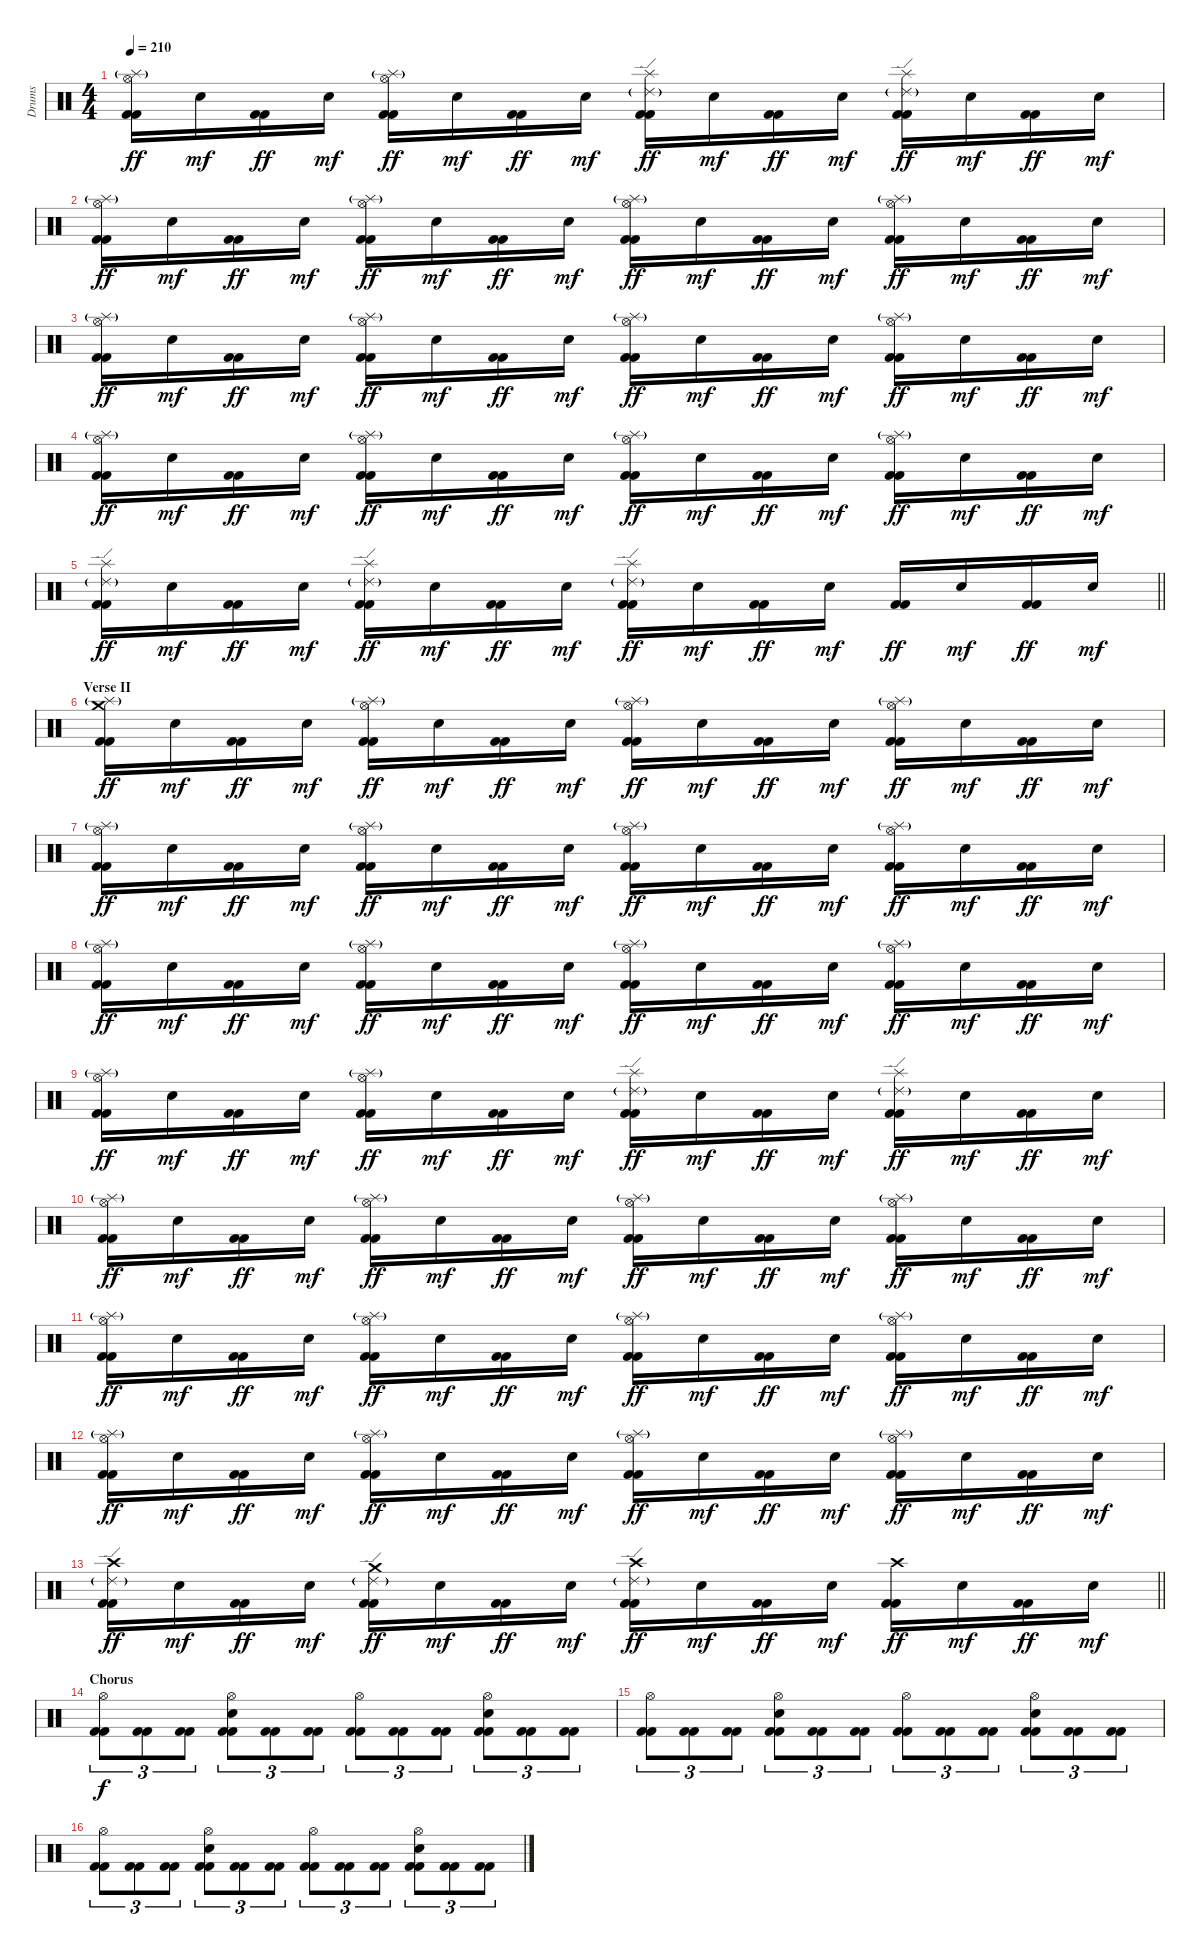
\track ("Drums" "Drums") {instrument percussion}
\staff {score}
\articulation defaults
\ts (4 4)
\tempo 210
\clef neutral
\ks c
("Hi-Hat (open)" "Splash (hit)"{g} "Kick (hit) 2" "Kick (hit) 2").16{dy ff} "Snare (hit) 2".16{dy mf} ("Kick (hit) 2" "Kick (hit) 2").16{dy ff} "Snare (hit) 2".16{dy mf} ("Hi-Hat (open)" "Splash (hit)"{g} "Kick (hit) 2" "Kick (hit) 2").16{dy ff} "Snare (hit) 2".16{dy mf} ("Kick (hit) 2" "Kick (hit) 2").16{dy ff} "Snare (hit) 2".16{dy mf} ("Splash (hit)" "Ride (edge) 2"{g} "Kick (hit) 2" "Kick (hit) 2").16{dy ff} "Snare (hit) 2".16{dy mf} ("Kick (hit) 2" "Kick (hit) 2").16{dy ff} "Snare (hit) 2".16{dy mf} ("Splash (hit)" "Ride (edge) 2"{g} "Kick (hit) 2" "Kick (hit) 2").16{dy ff} "Snare (hit) 2".16{dy mf} ("Kick (hit) 2" "Kick (hit) 2").16{dy ff} "Snare (hit) 2".16{dy mf} |
("Hi-Hat (open)" "Splash (hit)"{g} "Kick (hit) 2" "Kick (hit) 2").16{dy ff} "Snare (hit) 2".16{dy mf} ("Kick (hit) 2" "Kick (hit) 2").16{dy ff} "Snare (hit) 2".16{dy mf} ("Hi-Hat (open)" "Splash (hit)"{g} "Kick (hit) 2" "Kick (hit) 2").16{dy ff} "Snare (hit) 2".16{dy mf} ("Kick (hit) 2" "Kick (hit) 2").16{dy ff} "Snare (hit) 2".16{dy mf} ("Hi-Hat (open)" "Splash (hit)"{g} "Kick (hit) 2" "Kick (hit) 2").16{dy ff} "Snare (hit) 2".16{dy mf} ("Kick (hit) 2" "Kick (hit) 2").16{dy ff} "Snare (hit) 2".16{dy mf} ("Hi-Hat (open)" "Splash (hit)"{g} "Kick (hit) 2" "Kick (hit) 2").16{dy ff} "Snare (hit) 2".16{dy mf} ("Kick (hit) 2" "Kick (hit) 2").16{dy ff} "Snare (hit) 2".16{dy mf} |
("Hi-Hat (open)" "Splash (hit)"{g} "Kick (hit) 2" "Kick (hit) 2").16{dy ff} "Snare (hit) 2".16{dy mf} ("Kick (hit) 2" "Kick (hit) 2").16{dy ff} "Snare (hit) 2".16{dy mf} ("Hi-Hat (open)" "Splash (hit)"{g} "Kick (hit) 2" "Kick (hit) 2").16{dy ff} "Snare (hit) 2".16{dy mf} ("Kick (hit) 2" "Kick (hit) 2").16{dy ff} "Snare (hit) 2".16{dy mf} ("Hi-Hat (open)" "Splash (hit)"{g} "Kick (hit) 2" "Kick (hit) 2").16{dy ff} "Snare (hit) 2".16{dy mf} ("Kick (hit) 2" "Kick (hit) 2").16{dy ff} "Snare (hit) 2".16{dy mf} ("Hi-Hat (open)" "Splash (hit)"{g} "Kick (hit) 2" "Kick (hit) 2").16{dy ff} "Snare (hit) 2".16{dy mf} ("Kick (hit) 2" "Kick (hit) 2").16{dy ff} "Snare (hit) 2".16{dy mf} |
("Hi-Hat (open)" "Splash (hit)"{g} "Kick (hit) 2" "Kick (hit) 2").16{dy ff} "Snare (hit) 2".16{dy mf} ("Kick (hit) 2" "Kick (hit) 2").16{dy ff} "Snare (hit) 2".16{dy mf} ("Hi-Hat (open)" "Splash (hit)"{g} "Kick (hit) 2" "Kick (hit) 2").16{dy ff} "Snare (hit) 2".16{dy mf} ("Kick (hit) 2" "Kick (hit) 2").16{dy ff} "Snare (hit) 2".16{dy mf} ("Hi-Hat (open)" "Splash (hit)"{g} "Kick (hit) 2" "Kick (hit) 2").16{dy ff} "Snare (hit) 2".16{dy mf} ("Kick (hit) 2" "Kick (hit) 2").16{dy ff} "Snare (hit) 2".16{dy mf} ("Hi-Hat (open)" "Splash (hit)"{g} "Kick (hit) 2" "Kick (hit) 2").16{dy ff} "Snare (hit) 2".16{dy mf} ("Kick (hit) 2" "Kick (hit) 2").16{dy ff} "Snare (hit) 2".16{dy mf} |
\barLineRight lightlight
("Splash (hit)" "Ride (edge) 2"{g} "Kick (hit) 2" "Kick (hit) 2").16{dy ff} "Snare (hit) 2".16{dy mf} ("Kick (hit) 2" "Kick (hit) 2").16{dy ff} "Snare (hit) 2".16{dy mf} ("Splash (hit)" "Ride (edge) 2"{g} "Kick (hit) 2" "Kick (hit) 2").16{dy ff} "Snare (hit) 2".16{dy mf} ("Kick (hit) 2" "Kick (hit) 2").16{dy ff} "Snare (hit) 2".16{dy mf} ("Splash (hit)" "Ride (edge) 2"{g} "Kick (hit) 2" "Kick (hit) 2").16{dy ff} "Snare (hit) 2".16{dy mf} ("Kick (hit) 2" "Kick (hit) 2").16{dy ff} "Snare (hit) 2".16{dy mf} ("Kick (hit) 2" "Kick (hit) 2").16{dy ff} "Snare (hit) 2".16{dy mf} ("Kick (hit) 2" "Kick (hit) 2").16{dy ff} "Snare (hit) 2".16{dy mf} |
\section ("" "Verse II")
("Crash medium (hit)" "Splash (hit)"{g} "Kick (hit) 2" "Kick (hit) 2").16{dy ff} "Snare (hit) 2".16{dy mf} ("Kick (hit) 2" "Kick (hit) 2").16{dy ff} "Snare (hit) 2".16{dy mf} ("Hi-Hat (open)" "Splash (hit)"{g} "Kick (hit) 2" "Kick (hit) 2").16{dy ff} "Snare (hit) 2".16{dy mf} ("Kick (hit) 2" "Kick (hit) 2").16{dy ff} "Snare (hit) 2".16{dy mf} ("Hi-Hat (open)" "Splash (hit)"{g} "Kick (hit) 2" "Kick (hit) 2").16{dy ff} "Snare (hit) 2".16{dy mf} ("Kick (hit) 2" "Kick (hit) 2").16{dy ff} "Snare (hit) 2".16{dy mf} ("Hi-Hat (open)" "Splash (hit)"{g} "Kick (hit) 2" "Kick (hit) 2").16{dy ff} "Snare (hit) 2".16{dy mf} ("Kick (hit) 2" "Kick (hit) 2").16{dy ff} "Snare (hit) 2".16{dy mf} |
("Hi-Hat (open)" "Splash (hit)"{g} "Kick (hit) 2" "Kick (hit) 2").16{dy ff} "Snare (hit) 2".16{dy mf} ("Kick (hit) 2" "Kick (hit) 2").16{dy ff} "Snare (hit) 2".16{dy mf} ("Hi-Hat (open)" "Splash (hit)"{g} "Kick (hit) 2" "Kick (hit) 2").16{dy ff} "Snare (hit) 2".16{dy mf} ("Kick (hit) 2" "Kick (hit) 2").16{dy ff} "Snare (hit) 2".16{dy mf} ("Hi-Hat (open)" "Splash (hit)"{g} "Kick (hit) 2" "Kick (hit) 2").16{dy ff} "Snare (hit) 2".16{dy mf} ("Kick (hit) 2" "Kick (hit) 2").16{dy ff} "Snare (hit) 2".16{dy mf} ("Hi-Hat (open)" "Splash (hit)"{g} "Kick (hit) 2" "Kick (hit) 2").16{dy ff} "Snare (hit) 2".16{dy mf} ("Kick (hit) 2" "Kick (hit) 2").16{dy ff} "Snare (hit) 2".16{dy mf} |
("Hi-Hat (open)" "Splash (hit)"{g} "Kick (hit) 2" "Kick (hit) 2").16{dy ff} "Snare (hit) 2".16{dy mf} ("Kick (hit) 2" "Kick (hit) 2").16{dy ff} "Snare (hit) 2".16{dy mf} ("Hi-Hat (open)" "Splash (hit)"{g} "Kick (hit) 2" "Kick (hit) 2").16{dy ff} "Snare (hit) 2".16{dy mf} ("Kick (hit) 2" "Kick (hit) 2").16{dy ff} "Snare (hit) 2".16{dy mf} ("Hi-Hat (open)" "Splash (hit)"{g} "Kick (hit) 2" "Kick (hit) 2").16{dy ff} "Snare (hit) 2".16{dy mf} ("Kick (hit) 2" "Kick (hit) 2").16{dy ff} "Snare (hit) 2".16{dy mf} ("Hi-Hat (open)" "Splash (hit)"{g} "Kick (hit) 2" "Kick (hit) 2").16{dy ff} "Snare (hit) 2".16{dy mf} ("Kick (hit) 2" "Kick (hit) 2").16{dy ff} "Snare (hit) 2".16{dy mf} |
("Hi-Hat (open)" "Splash (hit)"{g} "Kick (hit) 2" "Kick (hit) 2").16{dy ff} "Snare (hit) 2".16{dy mf} ("Kick (hit) 2" "Kick (hit) 2").16{dy ff} "Snare (hit) 2".16{dy mf} ("Hi-Hat (open)" "Splash (hit)"{g} "Kick (hit) 2" "Kick (hit) 2").16{dy ff} "Snare (hit) 2".16{dy mf} ("Kick (hit) 2" "Kick (hit) 2").16{dy ff} "Snare (hit) 2".16{dy mf} ("Splash (hit)" "Ride (edge) 2"{g} "Kick (hit) 2" "Kick (hit) 2").16{dy ff} "Snare (hit) 2".16{dy mf} ("Kick (hit) 2" "Kick (hit) 2").16{dy ff} "Snare (hit) 2".16{dy mf} ("Splash (hit)" "Ride (edge) 2"{g} "Kick (hit) 2" "Kick (hit) 2").16{dy ff} "Snare (hit) 2".16{dy mf} ("Kick (hit) 2" "Kick (hit) 2").16{dy ff} "Snare (hit) 2".16{dy mf} |
("Hi-Hat (open)" "Splash (hit)"{g} "Kick (hit) 2" "Kick (hit) 2").16{dy ff} "Snare (hit) 2".16{dy mf} ("Kick (hit) 2" "Kick (hit) 2").16{dy ff} "Snare (hit) 2".16{dy mf} ("Hi-Hat (open)" "Splash (hit)"{g} "Kick (hit) 2" "Kick (hit) 2").16{dy ff} "Snare (hit) 2".16{dy mf} ("Kick (hit) 2" "Kick (hit) 2").16{dy ff} "Snare (hit) 2".16{dy mf} ("Hi-Hat (open)" "Splash (hit)"{g} "Kick (hit) 2" "Kick (hit) 2").16{dy ff} "Snare (hit) 2".16{dy mf} ("Kick (hit) 2" "Kick (hit) 2").16{dy ff} "Snare (hit) 2".16{dy mf} ("Hi-Hat (open)" "Splash (hit)"{g} "Kick (hit) 2" "Kick (hit) 2").16{dy ff} "Snare (hit) 2".16{dy mf} ("Kick (hit) 2" "Kick (hit) 2").16{dy ff} "Snare (hit) 2".16{dy mf} |
("Hi-Hat (open)" "Splash (hit)"{g} "Kick (hit) 2" "Kick (hit) 2").16{dy ff} "Snare (hit) 2".16{dy mf} ("Kick (hit) 2" "Kick (hit) 2").16{dy ff} "Snare (hit) 2".16{dy mf} ("Hi-Hat (open)" "Splash (hit)"{g} "Kick (hit) 2" "Kick (hit) 2").16{dy ff} "Snare (hit) 2".16{dy mf} ("Kick (hit) 2" "Kick (hit) 2").16{dy ff} "Snare (hit) 2".16{dy mf} ("Hi-Hat (open)" "Splash (hit)"{g} "Kick (hit) 2" "Kick (hit) 2").16{dy ff} "Snare (hit) 2".16{dy mf} ("Kick (hit) 2" "Kick (hit) 2").16{dy ff} "Snare (hit) 2".16{dy mf} ("Hi-Hat (open)" "Splash (hit)"{g} "Kick (hit) 2" "Kick (hit) 2").16{dy ff} "Snare (hit) 2".16{dy mf} ("Kick (hit) 2" "Kick (hit) 2").16{dy ff} "Snare (hit) 2".16{dy mf} |
("Hi-Hat (open)" "Splash (hit)"{g} "Kick (hit) 2" "Kick (hit) 2").16{dy ff} "Snare (hit) 2".16{dy mf} ("Kick (hit) 2" "Kick (hit) 2").16{dy ff} "Snare (hit) 2".16{dy mf} ("Hi-Hat (open)" "Splash (hit)"{g} "Kick (hit) 2" "Kick (hit) 2").16{dy ff} "Snare (hit) 2".16{dy mf} ("Kick (hit) 2" "Kick (hit) 2").16{dy ff} "Snare (hit) 2".16{dy mf} ("Hi-Hat (open)" "Splash (hit)"{g} "Kick (hit) 2" "Kick (hit) 2").16{dy ff} "Snare (hit) 2".16{dy mf} ("Kick (hit) 2" "Kick (hit) 2").16{dy ff} "Snare (hit) 2".16{dy mf} ("Hi-Hat (open)" "Splash (hit)"{g} "Kick (hit) 2" "Kick (hit) 2").16{dy ff} "Snare (hit) 2".16{dy mf} ("Kick (hit) 2" "Kick (hit) 2").16{dy ff} "Snare (hit) 2".16{dy mf} |
\barLineRight lightlight
("Crash high (hit)" "Ride (edge) 2"{g} "Kick (hit) 2" "Kick (hit) 2").16{dy ff} "Snare (hit) 2".16{dy mf} ("Kick (hit) 2" "Kick (hit) 2").16{dy ff} "Snare (hit) 2".16{dy mf} ("Crash medium (hit)" "Ride (edge) 2"{g} "Kick (hit) 2" "Kick (hit) 2").16{dy ff} "Snare (hit) 2".16{dy mf} ("Kick (hit) 2" "Kick (hit) 2").16{dy ff} "Snare (hit) 2".16{dy mf} ("Crash high (hit)" "Ride (edge) 2"{g} "Kick (hit) 2" "Kick (hit) 2").16{dy ff} "Snare (hit) 2".16{dy mf} ("Kick (hit) 2" "Kick (hit) 2").16{dy ff} "Snare (hit) 2".16{dy mf} ("Crash high (hit)" "Kick (hit) 2" "Kick (hit) 2").16{dy ff} "Snare (hit) 2".16{dy mf} ("Kick (hit) 2" "Kick (hit) 2").16{dy ff} "Snare (hit) 2".16{dy mf} |
\section ("" "Chorus")
("Hi-Hat (open)" "Kick (hit) 2" "Kick (hit) 2").8{tu (3 2) dy f} ("Kick (hit) 2" "Kick (hit) 2").8{tu (3 2)} ("Kick (hit) 2" "Kick (hit) 2").8{tu (3 2)} ("Hi-Hat (open)" "Snare (hit) 2" "Kick (hit) 2" "Kick (hit) 2").8{tu (3 2)} ("Kick (hit) 2" "Kick (hit) 2").8{tu (3 2)} ("Kick (hit) 2" "Kick (hit) 2").8{tu (3 2)} ("Hi-Hat (open)" "Kick (hit) 2" "Kick (hit) 2").8{tu (3 2)} ("Kick (hit) 2" "Kick (hit) 2").8{tu (3 2)} ("Kick (hit) 2" "Kick (hit) 2").8{tu (3 2)} ("Hi-Hat (open)" "Snare (hit) 2" "Kick (hit) 2" "Kick (hit) 2").8{tu (3 2)} ("Kick (hit) 2" "Kick (hit) 2").8{tu (3 2)} ("Kick (hit) 2" "Kick (hit) 2").8{tu (3 2)} |
("Hi-Hat (open)" "Kick (hit) 2" "Kick (hit) 2").8{tu (3 2)} ("Kick (hit) 2" "Kick (hit) 2").8{tu (3 2)} ("Kick (hit) 2" "Kick (hit) 2").8{tu (3 2)} ("Hi-Hat (open)" "Snare (hit) 2" "Kick (hit) 2" "Kick (hit) 2").8{tu (3 2)} ("Kick (hit) 2" "Kick (hit) 2").8{tu (3 2)} ("Kick (hit) 2" "Kick (hit) 2").8{tu (3 2)} ("Hi-Hat (open)" "Kick (hit) 2" "Kick (hit) 2").8{tu (3 2)} ("Kick (hit) 2" "Kick (hit) 2").8{tu (3 2)} ("Kick (hit) 2" "Kick (hit) 2").8{tu (3 2)} ("Hi-Hat (open)" "Snare (hit) 2" "Kick (hit) 2" "Kick (hit) 2").8{tu (3 2)} ("Kick (hit) 2" "Kick (hit) 2").8{tu (3 2)} ("Kick (hit) 2" "Kick (hit) 2").8{tu (3 2)} |
("Hi-Hat (open)" "Kick (hit) 2" "Kick (hit) 2").8{tu (3 2)} ("Kick (hit) 2" "Kick (hit) 2").8{tu (3 2)} ("Kick (hit) 2" "Kick (hit) 2").8{tu (3 2)} ("Hi-Hat (open)" "Snare (hit) 2" "Kick (hit) 2" "Kick (hit) 2").8{tu (3 2)} ("Kick (hit) 2" "Kick (hit) 2").8{tu (3 2)} ("Kick (hit) 2" "Kick (hit) 2").8{tu (3 2)} ("Hi-Hat (open)" "Kick (hit) 2" "Kick (hit) 2").8{tu (3 2)} ("Kick (hit) 2" "Kick (hit) 2").8{tu (3 2)} ("Kick (hit) 2" "Kick (hit) 2").8{tu (3 2)} ("Hi-Hat (open)" "Snare (hit) 2" "Kick (hit) 2" "Kick (hit) 2").8{tu (3 2)} ("Kick (hit) 2" "Kick (hit) 2").8{tu (3 2)} ("Kick (hit) 2" "Kick (hit) 2").8{tu (3 2)}
